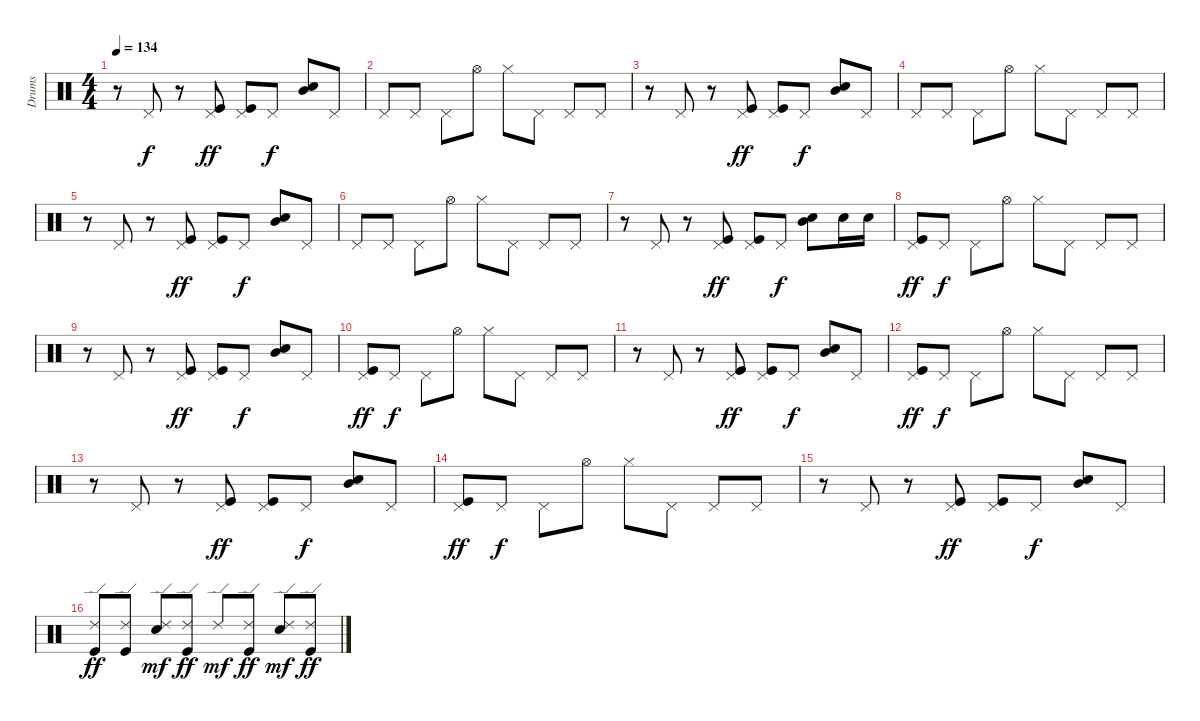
\track ("Drums" "Drums") {instrument percussion}
\staff {score}
\articulation defaults
\ts (4 4)
\tempo 134
\clef neutral
\ks c
r.8{dy f} "Pedal Hi-Hat (hit)".8 r.8 ("Pedal Hi-Hat (hit)" "Kick (hit)").8{dy ff} ("Pedal Hi-Hat (hit)" "Kick (hit)").8 "Pedal Hi-Hat (hit)".8{dy f} ("Mid Tom (hit)" "Snare (hit) 2").8 "Pedal Hi-Hat (hit)".8 |
"Pedal Hi-Hat (hit)".8 "Pedal Hi-Hat (hit)".8 "Pedal Hi-Hat (hit)".8 "Hi-Hat (open)".8 "Hi-Hat (closed)".8 "Pedal Hi-Hat (hit)".8 "Pedal Hi-Hat (hit)".8 "Pedal Hi-Hat (hit)".8 |
r.8 "Pedal Hi-Hat (hit)".8 r.8 ("Pedal Hi-Hat (hit)" "Kick (hit)").8{dy ff} ("Pedal Hi-Hat (hit)" "Kick (hit)").8 "Pedal Hi-Hat (hit)".8{dy f} ("Mid Tom (hit)" "Snare (hit) 2").8 "Pedal Hi-Hat (hit)".8 |
"Pedal Hi-Hat (hit)".8 "Pedal Hi-Hat (hit)".8 "Pedal Hi-Hat (hit)".8 "Hi-Hat (open)".8 "Hi-Hat (closed)".8 "Pedal Hi-Hat (hit)".8 "Pedal Hi-Hat (hit)".8 "Pedal Hi-Hat (hit)".8 |
r.8 "Pedal Hi-Hat (hit)".8 r.8 ("Pedal Hi-Hat (hit)" "Kick (hit)").8{dy ff} ("Pedal Hi-Hat (hit)" "Kick (hit)").8 "Pedal Hi-Hat (hit)".8{dy f} ("Mid Tom (hit)" "Snare (hit) 2").8 "Pedal Hi-Hat (hit)".8 |
"Pedal Hi-Hat (hit)".8 "Pedal Hi-Hat (hit)".8 "Pedal Hi-Hat (hit)".8 "Hi-Hat (open)".8 "Hi-Hat (closed)".8 "Pedal Hi-Hat (hit)".8 "Pedal Hi-Hat (hit)".8 "Pedal Hi-Hat (hit)".8 |
r.8 "Pedal Hi-Hat (hit)".8 r.8 ("Pedal Hi-Hat (hit)" "Kick (hit)").8{dy ff} ("Pedal Hi-Hat (hit)" "Kick (hit)").8 "Pedal Hi-Hat (hit)".8{dy f} ("Mid Tom (hit)" "Snare (hit) 2").8 "Snare (hit) 2".16 "Snare (hit) 2".16 |
("Pedal Hi-Hat (hit)" "Kick (hit)").8{dy ff} "Pedal Hi-Hat (hit)".8{dy f} "Pedal Hi-Hat (hit)".8 "Hi-Hat (open)".8 "Hi-Hat (closed)".8 "Pedal Hi-Hat (hit)".8 "Pedal Hi-Hat (hit)".8 "Pedal Hi-Hat (hit)".8 |
r.8 "Pedal Hi-Hat (hit)".8 r.8 ("Pedal Hi-Hat (hit)" "Kick (hit)").8{dy ff} ("Pedal Hi-Hat (hit)" "Kick (hit)").8 "Pedal Hi-Hat (hit)".8{dy f} ("Mid Tom (hit)" "Snare (hit) 2").8 "Pedal Hi-Hat (hit)".8 |
("Pedal Hi-Hat (hit)" "Kick (hit)").8{dy ff} "Pedal Hi-Hat (hit)".8{dy f} "Pedal Hi-Hat (hit)".8 "Hi-Hat (open)".8 "Hi-Hat (closed)".8 "Pedal Hi-Hat (hit)".8 "Pedal Hi-Hat (hit)".8 "Pedal Hi-Hat (hit)".8 |
r.8 "Pedal Hi-Hat (hit)".8 r.8 ("Pedal Hi-Hat (hit)" "Kick (hit)").8{dy ff} ("Pedal Hi-Hat (hit)" "Kick (hit)").8 "Pedal Hi-Hat (hit)".8{dy f} ("Mid Tom (hit)" "Snare (hit) 2").8 "Pedal Hi-Hat (hit)".8 |
("Pedal Hi-Hat (hit)" "Kick (hit)").8{dy ff} "Pedal Hi-Hat (hit)".8{dy f} "Pedal Hi-Hat (hit)".8 "Hi-Hat (open)".8 "Hi-Hat (closed)".8 "Pedal Hi-Hat (hit)".8 "Pedal Hi-Hat (hit)".8 "Pedal Hi-Hat (hit)".8 |
r.8 "Pedal Hi-Hat (hit)".8 r.8 ("Pedal Hi-Hat (hit)" "Kick (hit)").8{dy ff} ("Pedal Hi-Hat (hit)" "Kick (hit)").8 "Pedal Hi-Hat (hit)".8{dy f} ("Mid Tom (hit)" "Snare (hit) 2").8 "Pedal Hi-Hat (hit)".8 |
("Pedal Hi-Hat (hit)" "Kick (hit)").8{dy ff} "Pedal Hi-Hat (hit)".8{dy f} "Pedal Hi-Hat (hit)".8 "Hi-Hat (open)".8 "Hi-Hat (closed)".8 "Pedal Hi-Hat (hit)".8 "Pedal Hi-Hat (hit)".8 "Pedal Hi-Hat (hit)".8 |
r.8 "Pedal Hi-Hat (hit)".8 r.8 ("Pedal Hi-Hat (hit)" "Kick (hit)").8{dy ff} ("Pedal Hi-Hat (hit)" "Kick (hit)").8 "Pedal Hi-Hat (hit)".8{dy f} ("Mid Tom (hit)" "Snare (hit) 2").8 "Pedal Hi-Hat (hit)".8 |
("Ride (edge) 2" "Kick (hit)").8{dy ff} ("Ride (edge) 2" "Kick (hit)").8 ("Ride (edge) 2" "Snare (hit) 2").8{dy mf} ("Ride (edge) 2" "Kick (hit)").8{dy ff} "Ride (edge) 2".8{dy mf} ("Ride (edge) 2" "Kick (hit)").8{dy ff} ("Ride (edge) 2" "Snare (hit) 2").8{dy mf} ("Ride (edge) 2" "Kick (hit)").8{dy ff}
